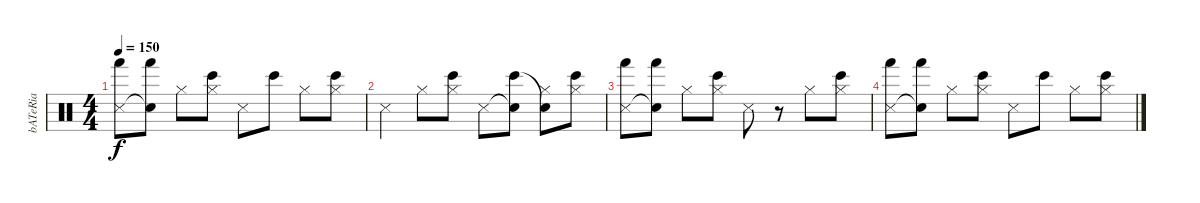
\track ("bATeRia" "bATeRia") {instrument percussion}
\staff {score}
\articulation defaults
\ts (4 4)
\tempo 150
\clef neutral
\ks c
("Snare (side stick) 3" "Hand (hit)").8{dy f} ("Snare (hit)"{t} "Hand (hit)").8 "Hi-Hat (closed)".8 ("Hi-Hat (closed)" "Bongo High (hit)").8 "Snare (side stick) 3".8 "Bongo High (hit)".8 "Hi-Hat (closed)".8 ("Hi-Hat (closed)" "Bongo High (hit)").8 |
"Snare (side stick) 3".4 "Hi-Hat (closed)".8 ("Hi-Hat (closed)" "Bongo High (hit)").8 "Snare (side stick) 3".8 ("Snare (hit)"{t} "Bongo High (hit)").8 ("Hi-Hat (closed)" "Snare (hit)"{t}).8 ("Hi-Hat (closed)" "Bongo High (hit)").8 |
("Snare (side stick) 3" "Hand (hit)").8 ("Snare (hit)"{t} "Hand (hit)").8 "Hi-Hat (closed)".8 ("Hi-Hat (closed)" "Bongo High (hit)").8 "Snare (side stick) 3".8 r.8 "Hi-Hat (closed)".8 ("Hi-Hat (closed)" "Bongo High (hit)").8 |
("Snare (side stick) 3" "Hand (hit)").8 ("Snare (hit)"{t} "Hand (hit)").8 "Hi-Hat (closed)".8 ("Hi-Hat (closed)" "Bongo High (hit)").8 "Snare (side stick) 3".8 "Bongo High (hit)".8 "Hi-Hat (closed)".8 ("Hi-Hat (closed)" "Bongo High (hit)").8
